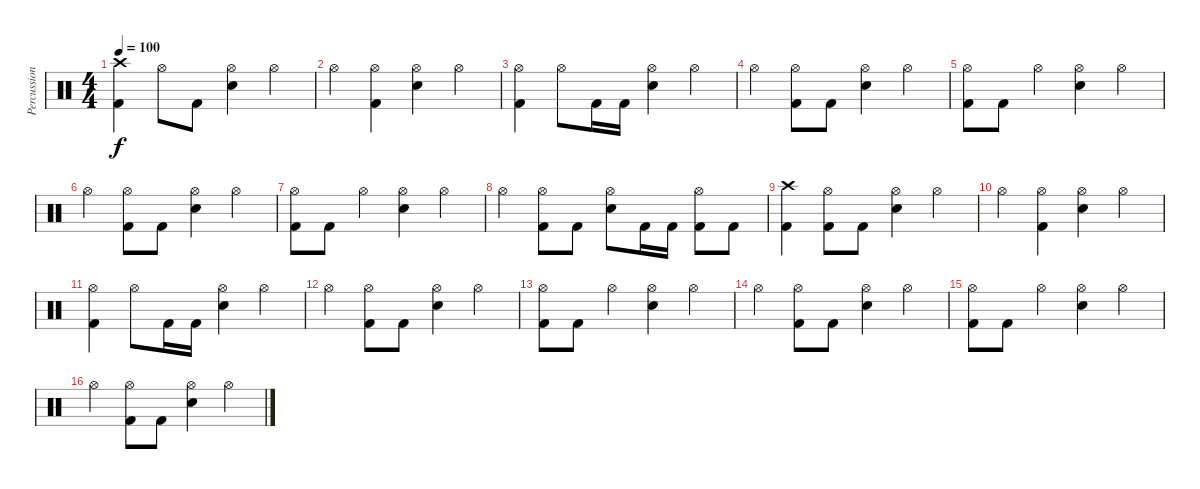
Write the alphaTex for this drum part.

\track ("Percussion" "Percussion") {instrument percussion}
\staff {score}
\articulation defaults
\ts (4 4)
\tempo 100
\clef neutral
\ks c
("Crash high (hit)" "Kick (hit) 2").4{dy f} "Hi-Hat (open)".8 "Kick (hit) 2".8 ("Hi-Hat (open)" "Electric Snare (hit)").4 "Hi-Hat (open)".4 |
"Hi-Hat (open)".4 ("Hi-Hat (open)" "Kick (hit) 2").4 ("Hi-Hat (open)" "Electric Snare (hit)").4 "Hi-Hat (open)".4 |
("Hi-Hat (open)" "Kick (hit) 2").4 "Hi-Hat (open)".8 "Kick (hit) 2".16 "Kick (hit) 2".16 ("Hi-Hat (open)" "Electric Snare (hit)").4 "Hi-Hat (open)".4 |
"Hi-Hat (open)".4 ("Hi-Hat (open)" "Kick (hit) 2").8 "Kick (hit) 2".8 ("Hi-Hat (open)" "Electric Snare (hit)").4 "Hi-Hat (open)".4 |
("Hi-Hat (open)" "Kick (hit) 2").8 "Kick (hit) 2".8 "Hi-Hat (open)".4 ("Hi-Hat (open)" "Electric Snare (hit)").4 "Hi-Hat (open)".4 |
"Hi-Hat (open)".4 ("Hi-Hat (open)" "Kick (hit) 2").8 "Kick (hit) 2".8 ("Hi-Hat (open)" "Electric Snare (hit)").4 "Hi-Hat (open)".4 |
("Hi-Hat (open)" "Kick (hit) 2").8 "Kick (hit) 2".8 "Hi-Hat (open)".4 ("Hi-Hat (open)" "Electric Snare (hit)").4 "Hi-Hat (open)".4 |
"Hi-Hat (open)".4 ("Hi-Hat (open)" "Kick (hit) 2").8 "Kick (hit) 2".8 ("Hi-Hat (open)" "Electric Snare (hit)").8 "Kick (hit) 2".16 "Kick (hit) 2".16 ("Hi-Hat (open)" "Kick (hit) 2").8 "Kick (hit) 2".8 |
("Crash high (hit)" "Kick (hit) 2").4 ("Hi-Hat (open)" "Kick (hit) 2").8 "Kick (hit) 2".8 ("Hi-Hat (open)" "Electric Snare (hit)").4 "Hi-Hat (open)".4 |
"Hi-Hat (open)".4 ("Hi-Hat (open)" "Kick (hit) 2").4 ("Hi-Hat (open)" "Electric Snare (hit)").4 "Hi-Hat (open)".4 |
("Hi-Hat (open)" "Kick (hit) 2").4 "Hi-Hat (open)".8 "Kick (hit) 2".16 "Kick (hit) 2".16 ("Hi-Hat (open)" "Electric Snare (hit)").4 "Hi-Hat (open)".4 |
"Hi-Hat (open)".4 ("Hi-Hat (open)" "Kick (hit) 2").8 "Kick (hit) 2".8 ("Hi-Hat (open)" "Electric Snare (hit)").4 "Hi-Hat (open)".4 |
("Hi-Hat (open)" "Kick (hit) 2").8 "Kick (hit) 2".8 "Hi-Hat (open)".4 ("Hi-Hat (open)" "Electric Snare (hit)").4 "Hi-Hat (open)".4 |
"Hi-Hat (open)".4 ("Hi-Hat (open)" "Kick (hit) 2").8 "Kick (hit) 2".8 ("Hi-Hat (open)" "Electric Snare (hit)").4 "Hi-Hat (open)".4 |
("Hi-Hat (open)" "Kick (hit) 2").8 "Kick (hit) 2".8 "Hi-Hat (open)".4 ("Hi-Hat (open)" "Electric Snare (hit)").4 "Hi-Hat (open)".4 |
"Hi-Hat (open)".4 ("Hi-Hat (open)" "Kick (hit) 2").8 "Kick (hit) 2".8 ("Hi-Hat (open)" "Electric Snare (hit)").4 "Hi-Hat (open)".4
